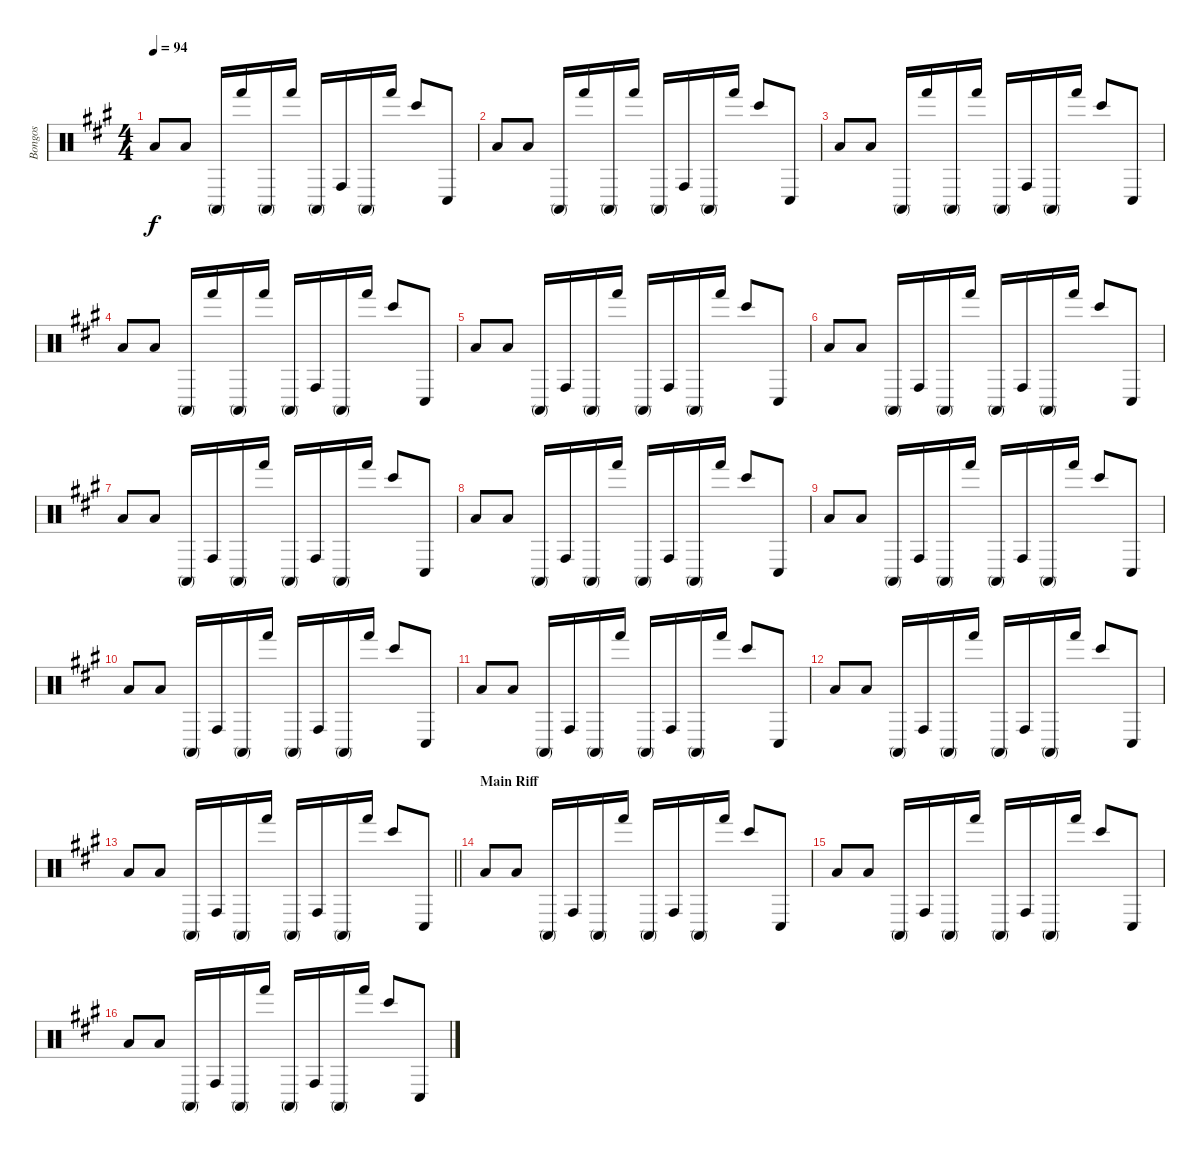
\track ("Bongos" "Bongos") {instrument percussion}
\staff {score}
\articulation defaults
\ts (4 4)
\tempo 94
\clef neutral
\ks a "Low Floor Tom (hit)".8{dy f volume 9} "Low Floor Tom (hit)".8 "Conga high (mute)".16 "Hand (hit)".16 "Conga high (mute)".16 "Hand (hit)".16 "Conga high (mute)".16 "Conga high (hit)".16 "Conga high (mute)".16 "Hand (hit)".16 "Bongo High (hit)".8 "Conga low (hit)".8
|
"Low Floor Tom (hit)".8{volume 10} "Low Floor Tom (hit)".8 "Conga high (mute)".16 "Hand (hit)".16 "Conga high (mute)".16 "Hand (hit)".16 "Conga high (mute)".16 "Conga high (hit)".16 "Conga high (mute)".16 "Hand (hit)".16 "Bongo High (hit)".8 "Conga low (hit)".8 |
"Low Floor Tom (hit)".8 "Low Floor Tom (hit)".8 "Conga high (mute)".16 "Hand (hit)".16 "Conga high (mute)".16 "Hand (hit)".16 "Conga high (mute)".16 "Conga high (hit)".16 "Conga high (mute)".16 "Hand (hit)".16 "Bongo High (hit)".8 "Conga low (hit)".8 |
"Low Floor Tom (hit)".8 "Low Floor Tom (hit)".8 "Conga high (mute)".16 "Hand (hit)".16 "Conga high (mute)".16 "Hand (hit)".16 "Conga high (mute)".16 "Conga high (hit)".16 "Conga high (mute)".16 "Hand (hit)".16 "Bongo High (hit)".8 "Conga low (hit)".8 |
"Low Floor Tom (hit)".8 "Low Floor Tom (hit)".8 "Conga high (mute)".16 "Conga high (hit)".16 "Conga high (mute)".16 "Hand (hit)".16 "Conga high (mute)".16 "Conga high (hit)".16 "Conga high (mute)".16 "Hand (hit)".16 "Bongo High (hit)".8 "Conga low (hit)".8 |
"Low Floor Tom (hit)".8 "Low Floor Tom (hit)".8 "Conga high (mute)".16 "Conga high (hit)".16 "Conga high (mute)".16 "Hand (hit)".16 "Conga high (mute)".16 "Conga high (hit)".16 "Conga high (mute)".16 "Hand (hit)".16 "Bongo High (hit)".8 "Conga low (hit)".8 |
"Low Floor Tom (hit)".8 "Low Floor Tom (hit)".8 "Conga high (mute)".16 "Conga high (hit)".16 "Conga high (mute)".16 "Hand (hit)".16 "Conga high (mute)".16 "Conga high (hit)".16 "Conga high (mute)".16 "Hand (hit)".16 "Bongo High (hit)".8 "Conga low (hit)".8 |
"Low Floor Tom (hit)".8 "Low Floor Tom (hit)".8 "Conga high (mute)".16 "Conga high (hit)".16 "Conga high (mute)".16 "Hand (hit)".16 "Conga high (mute)".16 "Conga high (hit)".16 "Conga high (mute)".16 "Hand (hit)".16 "Bongo High (hit)".8 "Conga low (hit)".8 |
"Low Floor Tom (hit)".8 "Low Floor Tom (hit)".8 "Conga high (mute)".16 "Conga high (hit)".16 "Conga high (mute)".16 "Hand (hit)".16 "Conga high (mute)".16 "Conga high (hit)".16 "Conga high (mute)".16 "Hand (hit)".16 "Bongo High (hit)".8 "Conga low (hit)".8 |
"Low Floor Tom (hit)".8 "Low Floor Tom (hit)".8 "Conga high (mute)".16 "Conga high (hit)".16 "Conga high (mute)".16 "Hand (hit)".16 "Conga high (mute)".16 "Conga high (hit)".16 "Conga high (mute)".16 "Hand (hit)".16 "Bongo High (hit)".8 "Conga low (hit)".8 |
"Low Floor Tom (hit)".8 "Low Floor Tom (hit)".8 "Conga high (mute)".16 "Conga high (hit)".16 "Conga high (mute)".16 "Hand (hit)".16 "Conga high (mute)".16 "Conga high (hit)".16 "Conga high (mute)".16 "Hand (hit)".16 "Bongo High (hit)".8 "Conga low (hit)".8 |
"Low Floor Tom (hit)".8 "Low Floor Tom (hit)".8 "Conga high (mute)".16 "Conga high (hit)".16 "Conga high (mute)".16 "Hand (hit)".16 "Conga high (mute)".16 "Conga high (hit)".16 "Conga high (mute)".16 "Hand (hit)".16 "Bongo High (hit)".8 "Conga low (hit)".8 |
\barLineRight lightlight "Low Floor Tom (hit)".8 "Low Floor Tom (hit)".8 "Conga high (mute)".16 "Conga high (hit)".16 "Conga high (mute)".16 "Hand (hit)".16 "Conga high (mute)".16 "Conga high (hit)".16 "Conga high (mute)".16 "Hand (hit)".16 "Bongo High (hit)".8 "Conga low (hit)".8
|
\section ("" "Main Riff")
"Low Floor Tom (hit)".8{volume 8} "Low Floor Tom (hit)".8 "Conga high (mute)".16 "Conga high (hit)".16 "Conga high (mute)".16 "Hand (hit)".16 "Conga high (mute)".16 "Conga high (hit)".16 "Conga high (mute)".16 "Hand (hit)".16 "Bongo High (hit)".8 "Conga low (hit)".8 |
"Low Floor Tom (hit)".8 "Low Floor Tom (hit)".8 "Conga high (mute)".16 "Conga high (hit)".16 "Conga high (mute)".16 "Hand (hit)".16 "Conga high (mute)".16 "Conga high (hit)".16 "Conga high (mute)".16 "Hand (hit)".16 "Bongo High (hit)".8 "Conga low (hit)".8 |
"Low Floor Tom (hit)".8 "Low Floor Tom (hit)".8 "Conga high (mute)".16 "Conga high (hit)".16 "Conga high (mute)".16 "Hand (hit)".16 "Conga high (mute)".16 "Conga high (hit)".16 "Conga high (mute)".16 "Hand (hit)".16 "Bongo High (hit)".8 "Conga low (hit)".8
